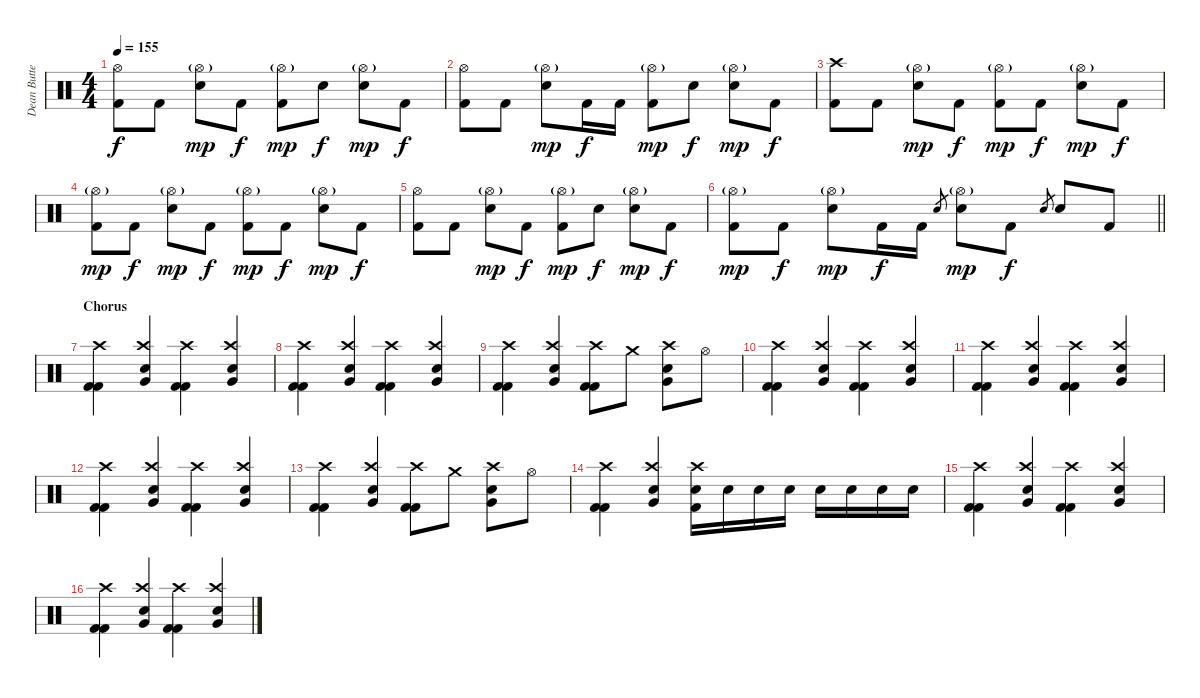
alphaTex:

\track ("Dean Butterworth [Drums]" "Dean Butte") {solo instrument percussion}
\staff {score}
\articulation defaults
\ts (4 4)
\tempo 155
\clef neutral
\ks c
("Hi-Hat (open)" "Kick (hit) 2").8{dy f} "Kick (hit) 2".8 ("Hi-Hat (open)"{g} "Electric Snare (hit)").8{dy mp} "Kick (hit) 2".8{dy f} ("Hi-Hat (open)"{g} "Kick (hit) 2").8{dy mp} "Electric Snare (hit)".8{dy f} ("Hi-Hat (open)"{g} "Electric Snare (hit)").8{dy mp} "Kick (hit) 2".8{dy f} |
("Hi-Hat (open)" "Kick (hit) 2").8 "Kick (hit) 2".8 ("Hi-Hat (open)"{g} "Electric Snare (hit)").8{dy mp} "Kick (hit) 2".16{dy f} "Kick (hit) 2".16 ("Hi-Hat (open)"{g} "Kick (hit) 2").8{dy mp} "Electric Snare (hit)".8{dy f} ("Hi-Hat (open)"{g} "Electric Snare (hit)").8{dy mp} "Kick (hit) 2".8{dy f} |
("Crash high (hit)" "Kick (hit) 2").8 "Kick (hit) 2".8 ("Hi-Hat (open)"{g} "Electric Snare (hit)").8{dy mp} "Kick (hit) 2".8{dy f} ("Hi-Hat (open)"{g} "Kick (hit) 2").8{dy mp} "Kick (hit) 2".8{dy f} ("Hi-Hat (open)"{g} "Electric Snare (hit)").8{dy mp} "Kick (hit) 2".8{dy f} |
("Hi-Hat (open)"{g} "Kick (hit) 2").8{dy mp} "Kick (hit) 2".8{dy f} ("Hi-Hat (open)"{g} "Electric Snare (hit)").8{dy mp} "Kick (hit) 2".8{dy f} ("Hi-Hat (open)"{g} "Kick (hit) 2").8{dy mp} "Kick (hit) 2".8{dy f} ("Hi-Hat (open)"{g} "Electric Snare (hit)").8{dy mp} "Kick (hit) 2".8{dy f} |
("Hi-Hat (open)" "Kick (hit) 2").8 "Kick (hit) 2".8 ("Hi-Hat (open)"{g} "Electric Snare (hit)").8{dy mp} "Kick (hit) 2".8{dy f} ("Hi-Hat (open)"{g} "Kick (hit) 2").8{dy mp} "Electric Snare (hit)".8{dy f} ("Hi-Hat (open)"{g} "Electric Snare (hit)").8{dy mp} "Kick (hit) 2".8{dy f} |
\barLineRight lightlight
("Hi-Hat (open)"{g} "Kick (hit) 2").8{dy mp} "Kick (hit) 2".8{dy f} ("Hi-Hat (open)"{g} "Electric Snare (hit)").8{dy mp} "Kick (hit) 2".16{dy f} "Kick (hit) 2".16 "Electric Snare (hit)".8{gr} ("Hi-Hat (open)"{g} "Electric Snare (hit)").8{dy mp} "Kick (hit) 2".8{dy f} "Electric Snare (hit)".8{gr} "Electric Snare (hit)".8 "Kick (hit) 2".8 |
\section ("" "Chorus")
("Crash high (hit)" "Kick (hit) 2" "Kick (hit) 2").4 ("Crash high (hit)" "Very Low Tom (hit)" "Electric Snare (hit)").4 ("Crash high (hit)" "Kick (hit) 2" "Kick (hit) 2").4 ("Crash high (hit)" "Very Low Tom (hit)" "Electric Snare (hit)").4 |
("Crash high (hit)" "Kick (hit) 2" "Kick (hit) 2").4 ("Crash high (hit)" "Very Low Tom (hit)" "Electric Snare (hit)").4 ("Crash high (hit)" "Kick (hit) 2" "Kick (hit) 2").4 ("Crash high (hit)" "Very Low Tom (hit)" "Electric Snare (hit)").4 |
("Crash high (hit)" "Kick (hit) 2" "Kick (hit) 2").4 ("Crash high (hit)" "Very Low Tom (hit)" "Electric Snare (hit)").4 ("Crash high (hit)" "Kick (hit) 2" "Kick (hit) 2").8 "Crash medium (hit)".8 ("Crash high (hit)" "Very Low Tom (hit)" "Electric Snare (hit)").8 "Hi-Hat (open)".8 |
("Crash high (hit)" "Kick (hit) 2" "Kick (hit) 2").4 ("Crash high (hit)" "Very Low Tom (hit)" "Electric Snare (hit)").4 ("Crash high (hit)" "Kick (hit) 2" "Kick (hit) 2").4 ("Crash high (hit)" "Very Low Tom (hit)" "Electric Snare (hit)").4 |
("Crash high (hit)" "Kick (hit) 2" "Kick (hit) 2").4 ("Crash high (hit)" "Very Low Tom (hit)" "Electric Snare (hit)").4 ("Crash high (hit)" "Kick (hit) 2" "Kick (hit) 2").4 ("Crash high (hit)" "Very Low Tom (hit)" "Electric Snare (hit)").4 |
("Crash high (hit)" "Kick (hit) 2" "Kick (hit) 2").4 ("Crash high (hit)" "Very Low Tom (hit)" "Electric Snare (hit)").4 ("Crash high (hit)" "Kick (hit) 2" "Kick (hit) 2").4 ("Crash high (hit)" "Very Low Tom (hit)" "Electric Snare (hit)").4 |
("Crash high (hit)" "Kick (hit) 2" "Kick (hit) 2").4 ("Crash high (hit)" "Very Low Tom (hit)" "Electric Snare (hit)").4 ("Crash high (hit)" "Kick (hit) 2" "Kick (hit) 2").8 "Crash medium (hit)".8 ("Crash high (hit)" "Very Low Tom (hit)" "Electric Snare (hit)").8 "Hi-Hat (open)".8 |
("Crash high (hit)" "Kick (hit) 2" "Kick (hit) 2").4 ("Crash high (hit)" "Very Low Tom (hit)" "Electric Snare (hit)").4 ("Crash high (hit)" "Electric Snare (hit)" "Kick (hit) 2").16 "Electric Snare (hit)".16 "Electric Snare (hit)".16 "Electric Snare (hit)".16 "Electric Snare (hit)".16 "Electric Snare (hit)".16 "Electric Snare (hit)".16 "Electric Snare (hit)".16 |
("Crash high (hit)" "Kick (hit) 2" "Kick (hit) 2").4 ("Crash high (hit)" "Very Low Tom (hit)" "Electric Snare (hit)").4 ("Crash high (hit)" "Kick (hit) 2" "Kick (hit) 2").4 ("Crash high (hit)" "Very Low Tom (hit)" "Electric Snare (hit)").4 |
("Crash high (hit)" "Kick (hit) 2" "Kick (hit) 2").4 ("Crash high (hit)" "Very Low Tom (hit)" "Electric Snare (hit)").4 ("Crash high (hit)" "Kick (hit) 2" "Kick (hit) 2").4 ("Crash high (hit)" "Very Low Tom (hit)" "Electric Snare (hit)").4
